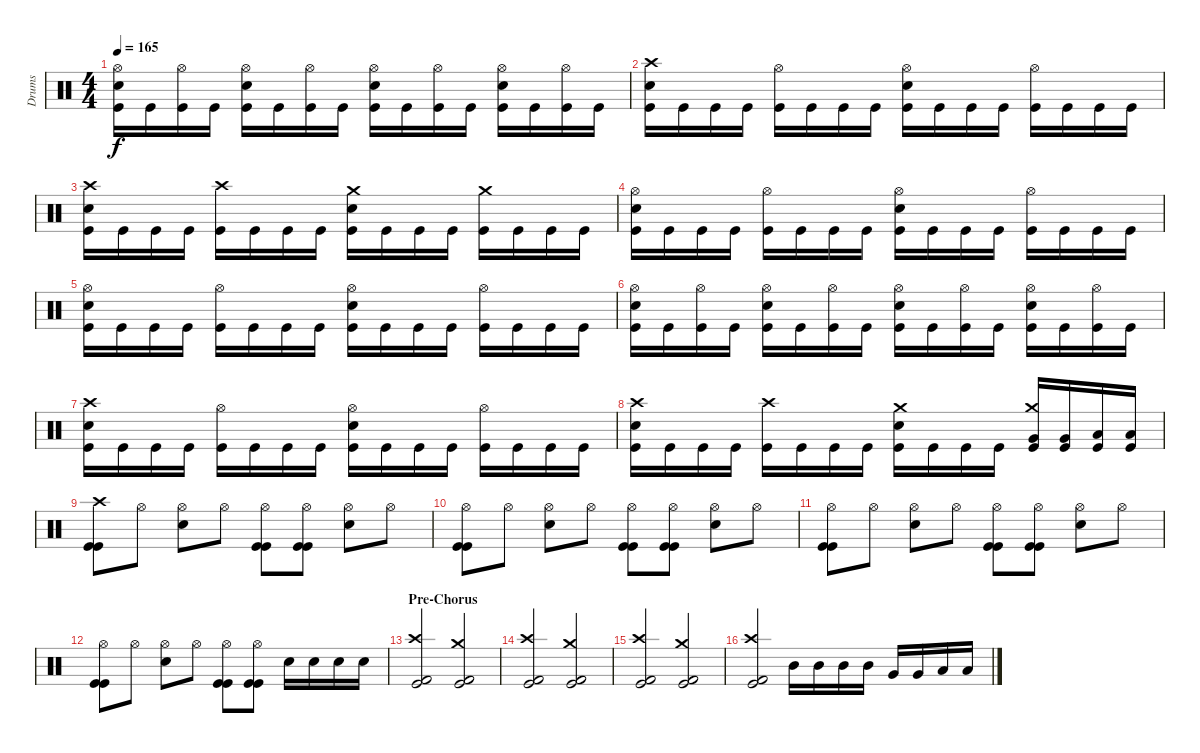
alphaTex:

\track ("Drums" "Drums") {instrument percussion}
\staff {score}
\articulation defaults
\ts (4 4)
\tempo 165
\clef neutral
\ks c
("Hi-Hat (open)" "Electric Snare (hit)" "Kick (hit)").16{dy f} "Kick (hit)".16 ("Hi-Hat (open)" "Kick (hit)").16 "Kick (hit)".16 ("Hi-Hat (open)" "Electric Snare (hit)" "Kick (hit)").16 "Kick (hit)".16 ("Hi-Hat (open)" "Kick (hit)").16 "Kick (hit)".16 ("Hi-Hat (open)" "Electric Snare (hit)" "Kick (hit)").16 "Kick (hit)".16 ("Hi-Hat (open)" "Kick (hit)").16 "Kick (hit)".16 ("Hi-Hat (open)" "Electric Snare (hit)" "Kick (hit)").16 "Kick (hit)".16 ("Hi-Hat (open)" "Kick (hit)").16 "Kick (hit)".16 |
("Crash high (hit)" "Electric Snare (hit)" "Kick (hit)").16 "Kick (hit)".16 "Kick (hit)".16 "Kick (hit)".16 ("Hi-Hat (open)" "Kick (hit)").16 "Kick (hit)".16 "Kick (hit)".16 "Kick (hit)".16 ("Hi-Hat (open)" "Electric Snare (hit)" "Kick (hit)").16 "Kick (hit)".16 "Kick (hit)".16 "Kick (hit)".16 ("Hi-Hat (open)" "Kick (hit)").16 "Kick (hit)".16 "Kick (hit)".16 "Kick (hit)".16 |
("Crash high (hit)" "Electric Snare (hit)" "Kick (hit)").16 "Kick (hit)".16 "Kick (hit)".16 "Kick (hit)".16 ("Crash high (hit)" "Kick (hit)").16 "Kick (hit)".16 "Kick (hit)".16 "Kick (hit)".16 ("Crash medium (hit)" "Electric Snare (hit)" "Kick (hit)").16 "Kick (hit)".16 "Kick (hit)".16 "Kick (hit)".16 ("Crash medium (hit)" "Kick (hit)").16 "Kick (hit)".16 "Kick (hit)".16 "Kick (hit)".16 |
("Hi-Hat (open)" "Electric Snare (hit)" "Kick (hit)").16 "Kick (hit)".16 "Kick (hit)".16 "Kick (hit)".16 ("Hi-Hat (open)" "Kick (hit)").16 "Kick (hit)".16 "Kick (hit)".16 "Kick (hit)".16 ("Hi-Hat (open)" "Electric Snare (hit)" "Kick (hit)").16 "Kick (hit)".16 "Kick (hit)".16 "Kick (hit)".16 ("Hi-Hat (open)" "Kick (hit)").16 "Kick (hit)".16 "Kick (hit)".16 "Kick (hit)".16 |
("Hi-Hat (open)" "Electric Snare (hit)" "Kick (hit)").16 "Kick (hit)".16 "Kick (hit)".16 "Kick (hit)".16 ("Hi-Hat (open)" "Kick (hit)").16 "Kick (hit)".16 "Kick (hit)".16 "Kick (hit)".16 ("Hi-Hat (open)" "Electric Snare (hit)" "Kick (hit)").16 "Kick (hit)".16 "Kick (hit)".16 "Kick (hit)".16 ("Hi-Hat (open)" "Kick (hit)").16 "Kick (hit)".16 "Kick (hit)".16 "Kick (hit)".16 |
("Hi-Hat (open)" "Electric Snare (hit)" "Kick (hit)").16 "Kick (hit)".16 ("Hi-Hat (open)" "Kick (hit)").16 "Kick (hit)".16 ("Hi-Hat (open)" "Electric Snare (hit)" "Kick (hit)").16 "Kick (hit)".16 ("Hi-Hat (open)" "Kick (hit)").16 "Kick (hit)".16 ("Hi-Hat (open)" "Electric Snare (hit)" "Kick (hit)").16 "Kick (hit)".16 ("Hi-Hat (open)" "Kick (hit)").16 "Kick (hit)".16 ("Hi-Hat (open)" "Electric Snare (hit)" "Kick (hit)").16 "Kick (hit)".16 ("Hi-Hat (open)" "Kick (hit)").16 "Kick (hit)".16 |
("Crash high (hit)" "Electric Snare (hit)" "Kick (hit)").16 "Kick (hit)".16 "Kick (hit)".16 "Kick (hit)".16 ("Hi-Hat (open)" "Kick (hit)").16 "Kick (hit)".16 "Kick (hit)".16 "Kick (hit)".16 ("Hi-Hat (open)" "Electric Snare (hit)" "Kick (hit)").16 "Kick (hit)".16 "Kick (hit)".16 "Kick (hit)".16 ("Hi-Hat (open)" "Kick (hit)").16 "Kick (hit)".16 "Kick (hit)".16 "Kick (hit)".16 |
("Crash high (hit)" "Electric Snare (hit)" "Kick (hit)").16 "Kick (hit)".16 "Kick (hit)".16 "Kick (hit)".16 ("Crash high (hit)" "Kick (hit)").16 "Kick (hit)".16 "Kick (hit)".16 "Kick (hit)".16 ("Crash medium (hit)" "Electric Snare (hit)" "Kick (hit)").16 "Kick (hit)".16 "Kick (hit)".16 "Kick (hit)".16 ("Crash medium (hit)" "Very Low Tom (hit)" "Kick (hit)").16 ("Very Low Tom (hit)" "Kick (hit)").16 ("Low Floor Tom (hit)" "Kick (hit)").16 ("Low Floor Tom (hit)" "Kick (hit)").16 |
("Crash high (hit)" "Kick (hit)" "Kick (hit)").8 "Hi-Hat (open)".8 ("Hi-Hat (open)" "Electric Snare (hit)").8 "Hi-Hat (open)".8 ("Hi-Hat (open)" "Kick (hit)" "Kick (hit)").8 ("Hi-Hat (open)" "Kick (hit)" "Kick (hit)").8 ("Hi-Hat (open)" "Electric Snare (hit)").8 "Hi-Hat (open)".8 |
("Hi-Hat (open)" "Kick (hit)" "Kick (hit)").8 "Hi-Hat (open)".8 ("Hi-Hat (open)" "Electric Snare (hit)").8 "Hi-Hat (open)".8 ("Hi-Hat (open)" "Kick (hit)" "Kick (hit)").8 ("Hi-Hat (open)" "Kick (hit)" "Kick (hit)").8 ("Hi-Hat (open)" "Electric Snare (hit)").8 "Hi-Hat (open)".8 |
("Hi-Hat (open)" "Kick (hit)" "Kick (hit)").8 "Hi-Hat (open)".8 ("Hi-Hat (open)" "Electric Snare (hit)").8 "Hi-Hat (open)".8 ("Hi-Hat (open)" "Kick (hit)" "Kick (hit)").8 ("Hi-Hat (open)" "Kick (hit)" "Kick (hit)").8 ("Hi-Hat (open)" "Electric Snare (hit)").8 "Hi-Hat (open)".8 |
("Hi-Hat (open)" "Kick (hit)" "Kick (hit)").8 "Hi-Hat (open)".8 ("Hi-Hat (open)" "Electric Snare (hit)").8 "Hi-Hat (open)".8 ("Hi-Hat (open)" "Kick (hit)" "Kick (hit)").8 ("Hi-Hat (open)" "Kick (hit)" "Kick (hit)").8 "Electric Snare (hit)".16{volume 10} "Electric Snare (hit)".16{volume 12} "Electric Snare (hit)".16{volume 14} "Electric Snare (hit)".16 |
\section ("" "Pre-Chorus")
("Crash high (hit)" "Kick (hit)" "Kick (hit) 2").2 ("Crash medium (hit)" "Kick (hit)" "Kick (hit) 2").2 |
("Crash high (hit)" "Kick (hit)" "Kick (hit) 2").2 ("Crash medium (hit)" "Kick (hit)" "Kick (hit) 2").2 |
("Crash high (hit)" "Kick (hit)" "Kick (hit) 2").2 ("Crash medium (hit)" "Kick (hit)" "Kick (hit) 2").2 |
("Crash high (hit)" "Kick (hit)" "Kick (hit) 2").2 "Mid Tom (hit)".16 "Mid Tom (hit)".16 "Mid Tom (hit)".16 "Mid Tom (hit)".16 "Very Low Tom (hit)".16 "Very Low Tom (hit)".16 "Low Floor Tom (hit)".16 "Low Floor Tom (hit)".16
